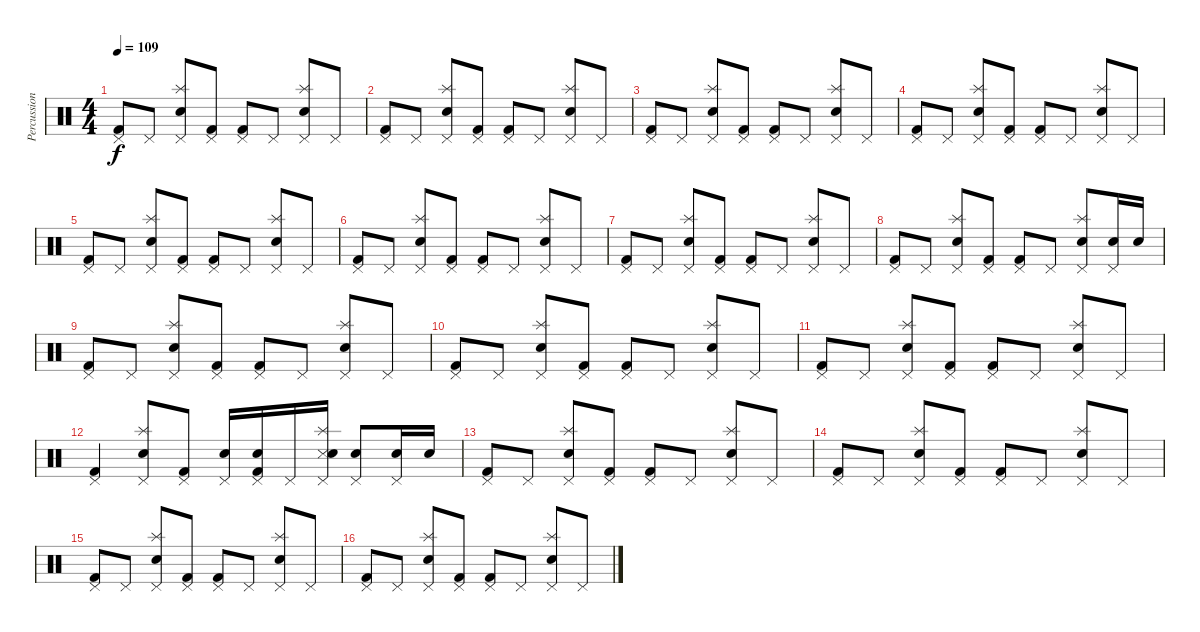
\track ("Percussion" "Percussion") {instrument percussion}
\staff {score}
\articulation defaults
\ts (4 4)
\tempo 109
\clef neutral
\ks c
("Pedal Hi-Hat (hit)" "Kick (hit) 2").8{dy f} "Pedal Hi-Hat (hit)".8 ("Pedal Hi-Hat (hit)" "Splash (hit)" "Electric Snare (hit)").8 ("Pedal Hi-Hat (hit)" "Kick (hit) 2").8 ("Pedal Hi-Hat (hit)" "Kick (hit) 2").8 "Pedal Hi-Hat (hit)".8 ("Pedal Hi-Hat (hit)" "Splash (hit)" "Electric Snare (hit)").8 "Pedal Hi-Hat (hit)".8 |
("Pedal Hi-Hat (hit)" "Kick (hit) 2").8 "Pedal Hi-Hat (hit)".8 ("Pedal Hi-Hat (hit)" "Splash (hit)" "Electric Snare (hit)").8 ("Pedal Hi-Hat (hit)" "Kick (hit) 2").8 ("Pedal Hi-Hat (hit)" "Kick (hit) 2").8 "Pedal Hi-Hat (hit)".8 ("Pedal Hi-Hat (hit)" "Splash (hit)" "Electric Snare (hit)").8 "Pedal Hi-Hat (hit)".8 |
("Pedal Hi-Hat (hit)" "Kick (hit) 2").8 "Pedal Hi-Hat (hit)".8 ("Pedal Hi-Hat (hit)" "Splash (hit)" "Electric Snare (hit)").8 ("Pedal Hi-Hat (hit)" "Kick (hit) 2").8 ("Pedal Hi-Hat (hit)" "Kick (hit) 2").8 "Pedal Hi-Hat (hit)".8 ("Pedal Hi-Hat (hit)" "Splash (hit)" "Electric Snare (hit)").8 "Pedal Hi-Hat (hit)".8 |
("Pedal Hi-Hat (hit)" "Kick (hit) 2").8 "Pedal Hi-Hat (hit)".8 ("Pedal Hi-Hat (hit)" "Splash (hit)" "Electric Snare (hit)").8 ("Pedal Hi-Hat (hit)" "Kick (hit) 2").8 ("Pedal Hi-Hat (hit)" "Kick (hit) 2").8 "Pedal Hi-Hat (hit)".8 ("Pedal Hi-Hat (hit)" "Splash (hit)" "Electric Snare (hit)").8 "Pedal Hi-Hat (hit)".8 |
("Pedal Hi-Hat (hit)" "Kick (hit) 2").8 "Pedal Hi-Hat (hit)".8 ("Pedal Hi-Hat (hit)" "Splash (hit)" "Electric Snare (hit)").8 ("Pedal Hi-Hat (hit)" "Kick (hit) 2").8 ("Pedal Hi-Hat (hit)" "Kick (hit) 2").8 "Pedal Hi-Hat (hit)".8 ("Pedal Hi-Hat (hit)" "Splash (hit)" "Electric Snare (hit)").8 "Pedal Hi-Hat (hit)".8 |
("Pedal Hi-Hat (hit)" "Kick (hit) 2").8 "Pedal Hi-Hat (hit)".8 ("Pedal Hi-Hat (hit)" "Splash (hit)" "Electric Snare (hit)").8 ("Pedal Hi-Hat (hit)" "Kick (hit) 2").8 ("Pedal Hi-Hat (hit)" "Kick (hit) 2").8 "Pedal Hi-Hat (hit)".8 ("Pedal Hi-Hat (hit)" "Splash (hit)" "Electric Snare (hit)").8 "Pedal Hi-Hat (hit)".8 |
("Pedal Hi-Hat (hit)" "Kick (hit) 2").8 "Pedal Hi-Hat (hit)".8 ("Pedal Hi-Hat (hit)" "Splash (hit)" "Electric Snare (hit)").8 ("Pedal Hi-Hat (hit)" "Kick (hit) 2").8 ("Pedal Hi-Hat (hit)" "Kick (hit) 2").8 "Pedal Hi-Hat (hit)".8 ("Pedal Hi-Hat (hit)" "Splash (hit)" "Electric Snare (hit)").8 "Pedal Hi-Hat (hit)".8 |
("Pedal Hi-Hat (hit)" "Kick (hit) 2").8 "Pedal Hi-Hat (hit)".8 ("Pedal Hi-Hat (hit)" "Splash (hit)" "Electric Snare (hit)").8 ("Pedal Hi-Hat (hit)" "Kick (hit) 2").8 ("Pedal Hi-Hat (hit)" "Kick (hit) 2").8 "Pedal Hi-Hat (hit)".8 ("Pedal Hi-Hat (hit)" "Splash (hit)" "Electric Snare (hit)").8 ("Pedal Hi-Hat (hit)" "Electric Snare (hit)").16 "Electric Snare (hit)".16 |
("Pedal Hi-Hat (hit)" "Kick (hit) 2").8 "Pedal Hi-Hat (hit)".8 ("Pedal Hi-Hat (hit)" "Splash (hit)" "Electric Snare (hit)").8 ("Pedal Hi-Hat (hit)" "Kick (hit) 2").8 ("Pedal Hi-Hat (hit)" "Kick (hit) 2").8 "Pedal Hi-Hat (hit)".8 ("Pedal Hi-Hat (hit)" "Splash (hit)" "Electric Snare (hit)").8 "Pedal Hi-Hat (hit)".8 |
("Pedal Hi-Hat (hit)" "Kick (hit) 2").8 "Pedal Hi-Hat (hit)".8 ("Pedal Hi-Hat (hit)" "Splash (hit)" "Electric Snare (hit)").8 ("Pedal Hi-Hat (hit)" "Kick (hit) 2").8 ("Pedal Hi-Hat (hit)" "Kick (hit) 2").8 "Pedal Hi-Hat (hit)".8 ("Pedal Hi-Hat (hit)" "Splash (hit)" "Electric Snare (hit)").8 "Pedal Hi-Hat (hit)".8 |
("Pedal Hi-Hat (hit)" "Kick (hit) 2").8 "Pedal Hi-Hat (hit)".8 ("Pedal Hi-Hat (hit)" "Splash (hit)" "Electric Snare (hit)").8 ("Pedal Hi-Hat (hit)" "Kick (hit) 2").8 ("Pedal Hi-Hat (hit)" "Kick (hit) 2").8 "Pedal Hi-Hat (hit)".8 ("Pedal Hi-Hat (hit)" "Splash (hit)" "Electric Snare (hit)").8 "Pedal Hi-Hat (hit)".8 |
("Pedal Hi-Hat (hit)" "Kick (hit) 2").4 ("Pedal Hi-Hat (hit)" "Splash (hit)" "Electric Snare (hit)").8 ("Pedal Hi-Hat (hit)" "Kick (hit) 2").8 ("Pedal Hi-Hat (hit)" "Electric Snare (hit)").16 ("Pedal Hi-Hat (hit)" "Electric Snare (hit)" "Kick (hit) 2").16 "Pedal Hi-Hat (hit)".16 ("Pedal Hi-Hat (hit)" "Splash (hit)" "Snare (side stick) 3" "Electric Snare (hit)").16 ("Pedal Hi-Hat (hit)" "Electric Snare (hit)").8 ("Pedal Hi-Hat (hit)" "Electric Snare (hit)").16 "Electric Snare (hit)".16 |
("Pedal Hi-Hat (hit)" "Kick (hit) 2").8 "Pedal Hi-Hat (hit)".8 ("Pedal Hi-Hat (hit)" "Splash (hit)" "Electric Snare (hit)").8 ("Pedal Hi-Hat (hit)" "Kick (hit) 2").8 ("Pedal Hi-Hat (hit)" "Kick (hit) 2").8 "Pedal Hi-Hat (hit)".8 ("Pedal Hi-Hat (hit)" "Splash (hit)" "Electric Snare (hit)").8 "Pedal Hi-Hat (hit)".8 |
("Pedal Hi-Hat (hit)" "Kick (hit) 2").8 "Pedal Hi-Hat (hit)".8 ("Pedal Hi-Hat (hit)" "Splash (hit)" "Electric Snare (hit)").8 ("Pedal Hi-Hat (hit)" "Kick (hit) 2").8 ("Pedal Hi-Hat (hit)" "Kick (hit) 2").8 "Pedal Hi-Hat (hit)".8 ("Pedal Hi-Hat (hit)" "Splash (hit)" "Electric Snare (hit)").8 "Pedal Hi-Hat (hit)".8 |
("Pedal Hi-Hat (hit)" "Kick (hit) 2").8 "Pedal Hi-Hat (hit)".8 ("Pedal Hi-Hat (hit)" "Splash (hit)" "Electric Snare (hit)").8 ("Pedal Hi-Hat (hit)" "Kick (hit) 2").8 ("Pedal Hi-Hat (hit)" "Kick (hit) 2").8 "Pedal Hi-Hat (hit)".8 ("Pedal Hi-Hat (hit)" "Splash (hit)" "Electric Snare (hit)").8 "Pedal Hi-Hat (hit)".8 |
("Pedal Hi-Hat (hit)" "Kick (hit) 2").8 "Pedal Hi-Hat (hit)".8 ("Pedal Hi-Hat (hit)" "Splash (hit)" "Electric Snare (hit)").8 ("Pedal Hi-Hat (hit)" "Kick (hit) 2").8 ("Pedal Hi-Hat (hit)" "Kick (hit) 2").8 "Pedal Hi-Hat (hit)".8 ("Pedal Hi-Hat (hit)" "Splash (hit)" "Electric Snare (hit)").8 "Pedal Hi-Hat (hit)".8
